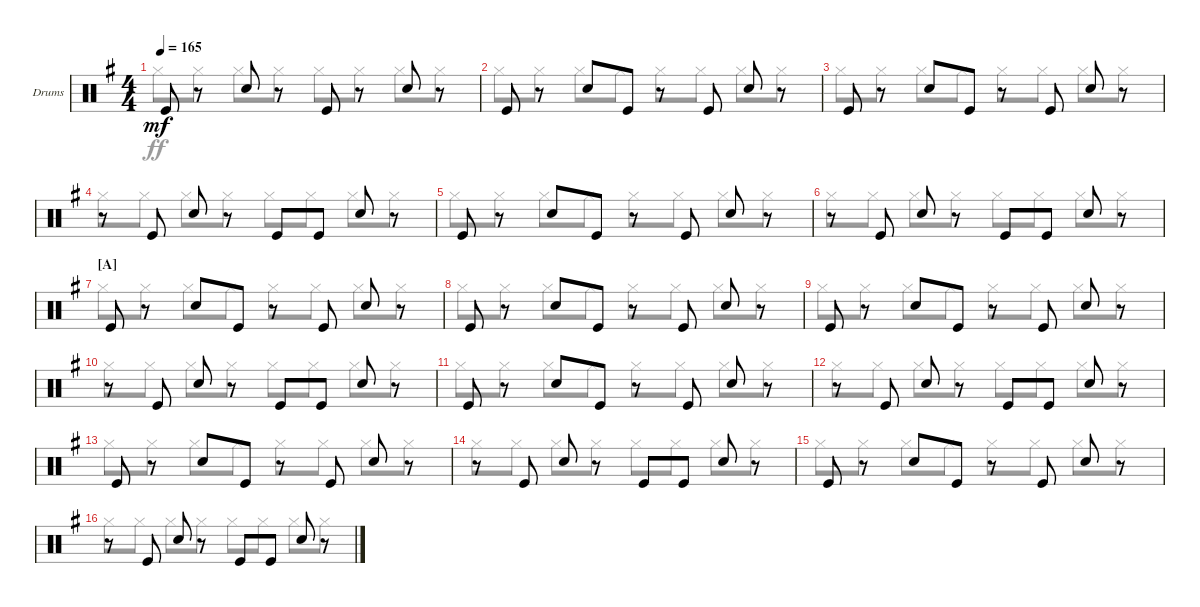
\defaultSystemsLayout 4
\bracketExtendMode groupsimilarinstruments
\firstSystemTrackNameOrientation horizontal
\otherSystemsTrackNameOrientation horizontal
\track ("Fabrizio Moretti" "Drums") {instrument percussion}
\staff {score}
\articulation defaults
\voice
\ts (4 4)
\tempo 165
\clef neutral
\ks g "Kick (hit)".8{dy mf}
r.8 "Snare (hit) 2".8 r.8 "Kick (hit)".8 r.8 "Snare (hit) 2".8 r.8 |
"Kick (hit)".8 r.8 "Snare (hit) 2".8 "Kick (hit)".8 r.8 "Kick (hit)".8 "Snare (hit) 2".8 r.8 |
"Kick (hit)".8 r.8 "Snare (hit) 2".8 "Kick (hit)".8 r.8 "Kick (hit)".8 "Snare (hit) 2".8 r.8 |
r.8 "Kick (hit)".8 "Snare (hit) 2".8 r.8 "Kick (hit)".8 "Kick (hit)".8 "Snare (hit) 2".8 r.8 |
"Kick (hit)".8 r.8 "Snare (hit) 2".8 "Kick (hit)".8 r.8 "Kick (hit)".8 "Snare (hit) 2".8 r.8 |
r.8 "Kick (hit)".8 "Snare (hit) 2".8 r.8 "Kick (hit)".8 "Kick (hit)".8 "Snare (hit) 2".8 r.8 |
\section ("A" "")
"Kick (hit)".8 r.8 "Snare (hit) 2".8 "Kick (hit)".8 r.8 "Kick (hit)".8 "Snare (hit) 2".8 r.8 |
"Kick (hit)".8 r.8 "Snare (hit) 2".8 "Kick (hit)".8 r.8 "Kick (hit)".8 "Snare (hit) 2".8 r.8 |
"Kick (hit)".8 r.8 "Snare (hit) 2".8 "Kick (hit)".8 r.8 "Kick (hit)".8 "Snare (hit) 2".8 r.8 |
r.8 "Kick (hit)".8 "Snare (hit) 2".8 r.8 "Kick (hit)".8 "Kick (hit)".8 "Snare (hit) 2".8 r.8 |
"Kick (hit)".8 r.8 "Snare (hit) 2".8 "Kick (hit)".8 r.8 "Kick (hit)".8 "Snare (hit) 2".8 r.8 |
r.8 "Kick (hit)".8 "Snare (hit) 2".8 r.8 "Kick (hit)".8 "Kick (hit)".8 "Snare (hit) 2".8 r.8 |
"Kick (hit)".8 r.8 "Snare (hit) 2".8 "Kick (hit)".8 r.8 "Kick (hit)".8 "Snare (hit) 2".8 r.8 |
r.8 "Kick (hit)".8 "Snare (hit) 2".8 r.8 "Kick (hit)".8 "Kick (hit)".8 "Snare (hit) 2".8 r.8 |
"Kick (hit)".8 r.8 "Snare (hit) 2".8 "Kick (hit)".8 r.8 "Kick (hit)".8 "Snare (hit) 2".8 r.8 |
r.8 "Kick (hit)".8 "Snare (hit) 2".8 r.8 "Kick (hit)".8 "Kick (hit)".8 "Snare (hit) 2".8 r.8
\voice
\clef neutral
\ottava regular
\simile none
\ks g "Hi-Hat (closed)".8{dy ff} "Hi-Hat (closed)".8 "Hi-Hat (closed)".8 "Hi-Hat (closed)".8 "Hi-Hat (closed)".8 "Hi-Hat (closed)".8 "Hi-Hat (closed)".8 "Hi-Hat (closed)".8
|
"Hi-Hat (closed)".8 "Hi-Hat (closed)".8 "Hi-Hat (closed)".8 "Hi-Hat (closed)".8 "Hi-Hat (closed)".8 "Hi-Hat (closed)".8 "Hi-Hat (closed)".8 "Hi-Hat (closed)".8 |
"Hi-Hat (closed)".8 "Hi-Hat (closed)".8 "Hi-Hat (closed)".8 "Hi-Hat (closed)".8 "Hi-Hat (closed)".8 "Hi-Hat (closed)".8 "Hi-Hat (closed)".8 "Hi-Hat (closed)".8 |
"Hi-Hat (closed)".8 "Hi-Hat (closed)".8 "Hi-Hat (closed)".8 "Hi-Hat (closed)".8 "Hi-Hat (closed)".8 "Hi-Hat (closed)".8 "Hi-Hat (closed)".8 "Hi-Hat (closed)".8 |
"Hi-Hat (closed)".8 "Hi-Hat (closed)".8 "Hi-Hat (closed)".8 "Hi-Hat (closed)".8 "Hi-Hat (closed)".8 "Hi-Hat (closed)".8 "Hi-Hat (closed)".8 "Hi-Hat (closed)".8 |
"Hi-Hat (closed)".8 "Hi-Hat (closed)".8 "Hi-Hat (closed)".8 "Hi-Hat (closed)".8 "Hi-Hat (closed)".8 "Hi-Hat (closed)".8 "Hi-Hat (closed)".8 "Hi-Hat (closed)".8 |
"Hi-Hat (closed)".8 "Hi-Hat (closed)".8 "Hi-Hat (closed)".8 "Hi-Hat (closed)".8 "Hi-Hat (closed)".8 "Hi-Hat (closed)".8 "Hi-Hat (closed)".8 "Hi-Hat (closed)".8 |
"Hi-Hat (closed)".8 "Hi-Hat (closed)".8 "Hi-Hat (closed)".8 "Hi-Hat (closed)".8 "Hi-Hat (closed)".8 "Hi-Hat (closed)".8 "Hi-Hat (closed)".8 "Hi-Hat (closed)".8 |
"Hi-Hat (closed)".8 "Hi-Hat (closed)".8 "Hi-Hat (closed)".8 "Hi-Hat (closed)".8 "Hi-Hat (closed)".8 "Hi-Hat (closed)".8 "Hi-Hat (closed)".8 "Hi-Hat (closed)".8 |
"Hi-Hat (closed)".8 "Hi-Hat (closed)".8 "Hi-Hat (closed)".8 "Hi-Hat (closed)".8 "Hi-Hat (closed)".8 "Hi-Hat (closed)".8 "Hi-Hat (closed)".8 "Hi-Hat (closed)".8 |
"Hi-Hat (closed)".8 "Hi-Hat (closed)".8 "Hi-Hat (closed)".8 "Hi-Hat (closed)".8 "Hi-Hat (closed)".8 "Hi-Hat (closed)".8 "Hi-Hat (closed)".8 "Hi-Hat (closed)".8 |
"Hi-Hat (closed)".8 "Hi-Hat (closed)".8 "Hi-Hat (closed)".8 "Hi-Hat (closed)".8 "Hi-Hat (closed)".8 "Hi-Hat (closed)".8 "Hi-Hat (closed)".8 "Hi-Hat (closed)".8 |
"Hi-Hat (closed)".8 "Hi-Hat (closed)".8 "Hi-Hat (closed)".8 "Hi-Hat (closed)".8 "Hi-Hat (closed)".8 "Hi-Hat (closed)".8 "Hi-Hat (closed)".8 "Hi-Hat (closed)".8 |
"Hi-Hat (closed)".8 "Hi-Hat (closed)".8 "Hi-Hat (closed)".8 "Hi-Hat (closed)".8 "Hi-Hat (closed)".8 "Hi-Hat (closed)".8 "Hi-Hat (closed)".8 "Hi-Hat (closed)".8 |
"Hi-Hat (closed)".8 "Hi-Hat (closed)".8 "Hi-Hat (closed)".8 "Hi-Hat (closed)".8 "Hi-Hat (closed)".8 "Hi-Hat (closed)".8 "Hi-Hat (closed)".8 "Hi-Hat (closed)".8 |
"Hi-Hat (closed)".8 "Hi-Hat (closed)".8 "Hi-Hat (closed)".8 "Hi-Hat (closed)".8 "Hi-Hat (closed)".8 "Hi-Hat (closed)".8 "Hi-Hat (closed)".8 "Hi-Hat (closed)".8
